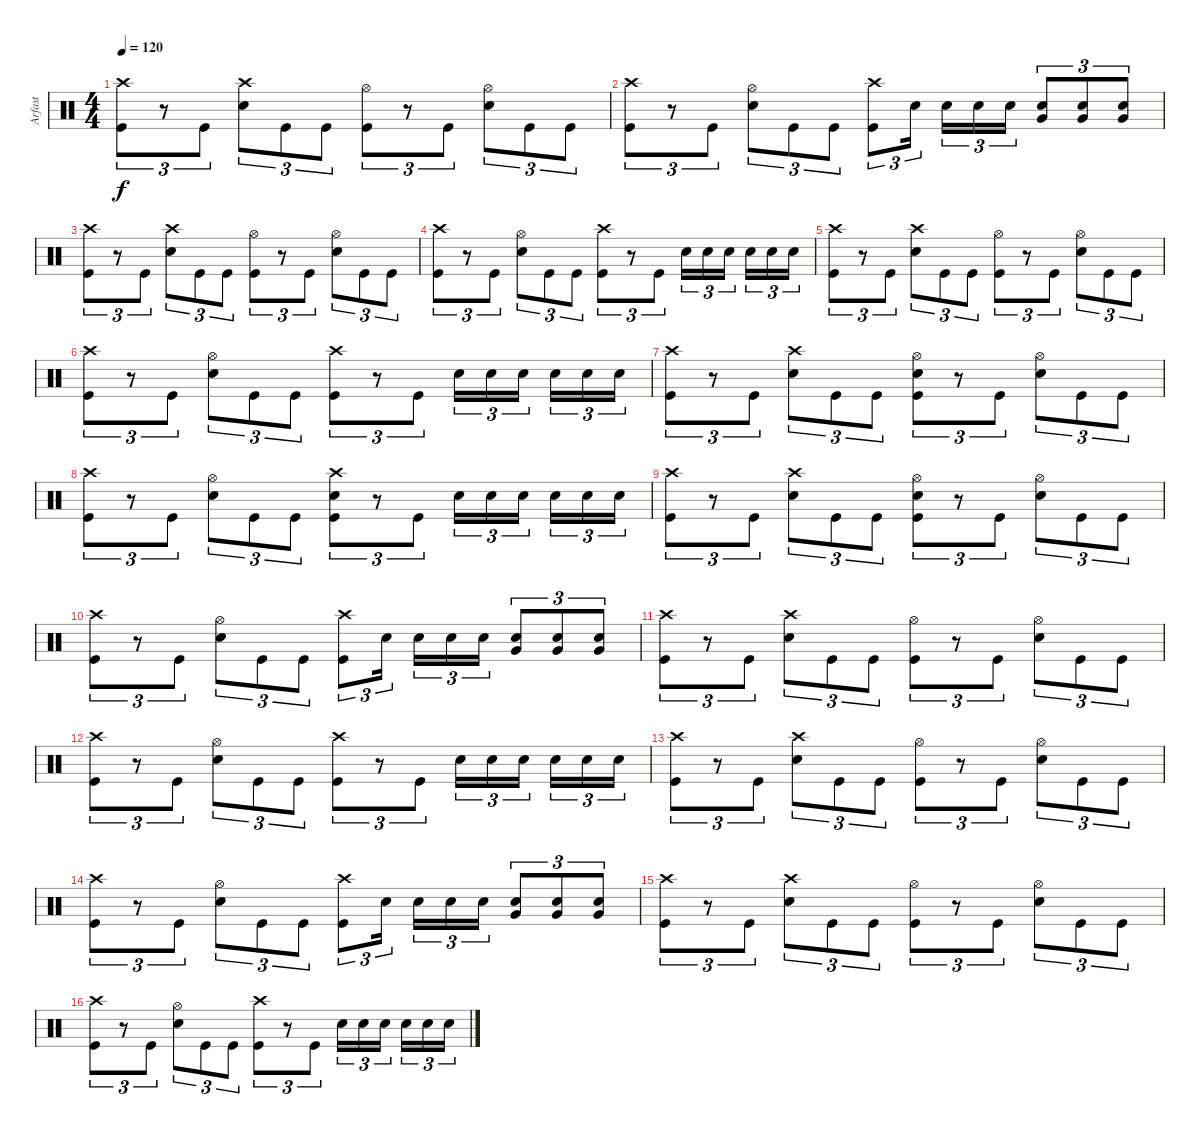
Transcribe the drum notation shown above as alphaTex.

\track ("Arfast" "Arfast") {instrument percussion}
\staff {score}
\articulation defaults
\ts (4 4)
\tempo 120
\clef neutral
\ks c
("Crash high (hit)" "Kick (hit)").8{tu (3 2) dy f} r.8{tu (3 2)} "Kick (hit)".8{tu (3 2)} ("Crash high (hit)" "Snare (hit) 2").8{tu (3 2)} "Kick (hit)".8{tu (3 2)} "Kick (hit)".8{tu (3 2)} ("Hi-Hat (open)" "Kick (hit)").8{tu (3 2)} r.8{tu (3 2)} "Kick (hit)".8{tu (3 2)} ("Hi-Hat (open)" "Snare (hit) 2").8{tu (3 2)} "Kick (hit)".8{tu (3 2)} "Kick (hit)".8{tu (3 2)} |
("Crash high (hit)" "Kick (hit)").8{tu (3 2)} r.8{tu (3 2)} "Kick (hit)".8{tu (3 2)} ("Hi-Hat (open)" "Snare (hit) 2").8{tu (3 2)} "Kick (hit)".8{tu (3 2)} "Kick (hit)".8{tu (3 2)} ("Crash high (hit)" "Kick (hit)").8{tu (3 2)} "Snare (hit) 2".16{tu (3 2) beam splitsecondary} "Snare (hit) 2".16{tu (3 2)} "Snare (hit) 2".16{tu (3 2)} "Snare (hit) 2".16{tu (3 2)} ("Snare (hit) 2" "Very Low Tom (hit)").8{tu (3 2)} ("Snare (hit) 2" "Very Low Tom (hit)").8{tu (3 2)} ("Snare (hit) 2" "Very Low Tom (hit)").8{tu (3 2)} |
("Crash high (hit)" "Kick (hit)").8{tu (3 2)} r.8{tu (3 2)} "Kick (hit)".8{tu (3 2)} ("Crash high (hit)" "Snare (hit) 2").8{tu (3 2)} "Kick (hit)".8{tu (3 2)} "Kick (hit)".8{tu (3 2)} ("Hi-Hat (open)" "Kick (hit)").8{tu (3 2)} r.8{tu (3 2)} "Kick (hit)".8{tu (3 2)} ("Hi-Hat (open)" "Snare (hit) 2").8{tu (3 2)} "Kick (hit)".8{tu (3 2)} "Kick (hit)".8{tu (3 2)} |
("Crash high (hit)" "Kick (hit)").8{tu (3 2)} r.8{tu (3 2)} "Kick (hit)".8{tu (3 2)} ("Hi-Hat (open)" "Snare (hit) 2").8{tu (3 2)} "Kick (hit)".8{tu (3 2)} "Kick (hit)".8{tu (3 2)} ("Crash high (hit)" "Kick (hit)").8{tu (3 2)} r.8{tu (3 2)} "Kick (hit)".8{tu (3 2)} "Snare (hit) 2".16{tu (3 2)} "Snare (hit) 2".16{tu (3 2)} "Snare (hit) 2".16{tu (3 2) beam splitsecondary} "Snare (hit) 2".16{tu (3 2)} "Snare (hit) 2".16{tu (3 2)} "Snare (hit) 2".16{tu (3 2)} |
("Crash high (hit)" "Kick (hit)").8{tu (3 2)} r.8{tu (3 2)} "Kick (hit)".8{tu (3 2)} ("Crash high (hit)" "Snare (hit) 2").8{tu (3 2)} "Kick (hit)".8{tu (3 2)} "Kick (hit)".8{tu (3 2)} ("Hi-Hat (open)" "Kick (hit)").8{tu (3 2)} r.8{tu (3 2)} "Kick (hit)".8{tu (3 2)} ("Hi-Hat (open)" "Snare (hit) 2").8{tu (3 2)} "Kick (hit)".8{tu (3 2)} "Kick (hit)".8{tu (3 2)} |
("Crash high (hit)" "Kick (hit)").8{tu (3 2)} r.8{tu (3 2)} "Kick (hit)".8{tu (3 2)} ("Hi-Hat (open)" "Snare (hit) 2").8{tu (3 2)} "Kick (hit)".8{tu (3 2)} "Kick (hit)".8{tu (3 2)} ("Crash high (hit)" "Kick (hit)").8{tu (3 2)} r.8{tu (3 2)} "Kick (hit)".8{tu (3 2)} "Snare (hit) 2".16{tu (3 2)} "Snare (hit) 2".16{tu (3 2)} "Snare (hit) 2".16{tu (3 2) beam splitsecondary} "Snare (hit) 2".16{tu (3 2)} "Snare (hit) 2".16{tu (3 2)} "Snare (hit) 2".16{tu (3 2)} |
("Crash high (hit)" "Kick (hit)").8{tu (3 2)} r.8{tu (3 2)} "Kick (hit)".8{tu (3 2)} ("Crash high (hit)" "Snare (hit) 2").8{tu (3 2)} "Kick (hit)".8{tu (3 2)} "Kick (hit)".8{tu (3 2)} ("Hi-Hat (open)" "Snare (hit) 2" "Kick (hit)").8{tu (3 2)} r.8{tu (3 2)} "Kick (hit)".8{tu (3 2)} ("Hi-Hat (open)" "Snare (hit) 2").8{tu (3 2)} "Kick (hit)".8{tu (3 2)} "Kick (hit)".8{tu (3 2)} |
("Crash high (hit)" "Kick (hit)").8{tu (3 2)} r.8{tu (3 2)} "Kick (hit)".8{tu (3 2)} ("Hi-Hat (open)" "Snare (hit) 2").8{tu (3 2)} "Kick (hit)".8{tu (3 2)} "Kick (hit)".8{tu (3 2)} ("Crash high (hit)" "Snare (hit) 2" "Kick (hit)").8{tu (3 2)} r.8{tu (3 2)} "Kick (hit)".8{tu (3 2)} "Snare (hit) 2".16{tu (3 2)} "Snare (hit) 2".16{tu (3 2)} "Snare (hit) 2".16{tu (3 2) beam splitsecondary} "Snare (hit) 2".16{tu (3 2)} "Snare (hit) 2".16{tu (3 2)} "Snare (hit) 2".16{tu (3 2)} |
("Crash high (hit)" "Kick (hit)").8{tu (3 2)} r.8{tu (3 2)} "Kick (hit)".8{tu (3 2)} ("Crash high (hit)" "Snare (hit) 2").8{tu (3 2)} "Kick (hit)".8{tu (3 2)} "Kick (hit)".8{tu (3 2)} ("Hi-Hat (open)" "Snare (hit) 2" "Kick (hit)").8{tu (3 2)} r.8{tu (3 2)} "Kick (hit)".8{tu (3 2)} ("Hi-Hat (open)" "Snare (hit) 2").8{tu (3 2)} "Kick (hit)".8{tu (3 2)} "Kick (hit)".8{tu (3 2)} |
("Crash high (hit)" "Kick (hit)").8{tu (3 2)} r.8{tu (3 2)} "Kick (hit)".8{tu (3 2)} ("Hi-Hat (open)" "Snare (hit) 2").8{tu (3 2)} "Kick (hit)".8{tu (3 2)} "Kick (hit)".8{tu (3 2)} ("Crash high (hit)" "Kick (hit)").8{tu (3 2)} "Snare (hit) 2".16{tu (3 2) beam splitsecondary} "Snare (hit) 2".16{tu (3 2)} "Snare (hit) 2".16{tu (3 2)} "Snare (hit) 2".16{tu (3 2)} ("Snare (hit) 2" "Very Low Tom (hit)").8{tu (3 2)} ("Snare (hit) 2" "Very Low Tom (hit)").8{tu (3 2)} ("Snare (hit) 2" "Very Low Tom (hit)").8{tu (3 2)} |
("Crash high (hit)" "Kick (hit)").8{tu (3 2)} r.8{tu (3 2)} "Kick (hit)".8{tu (3 2)} ("Crash high (hit)" "Snare (hit) 2").8{tu (3 2)} "Kick (hit)".8{tu (3 2)} "Kick (hit)".8{tu (3 2)} ("Hi-Hat (open)" "Kick (hit)").8{tu (3 2)} r.8{tu (3 2)} "Kick (hit)".8{tu (3 2)} ("Hi-Hat (open)" "Snare (hit) 2").8{tu (3 2)} "Kick (hit)".8{tu (3 2)} "Kick (hit)".8{tu (3 2)} |
("Crash high (hit)" "Kick (hit)").8{tu (3 2)} r.8{tu (3 2)} "Kick (hit)".8{tu (3 2)} ("Hi-Hat (open)" "Snare (hit) 2").8{tu (3 2)} "Kick (hit)".8{tu (3 2)} "Kick (hit)".8{tu (3 2)} ("Crash high (hit)" "Kick (hit)").8{tu (3 2)} r.8{tu (3 2)} "Kick (hit)".8{tu (3 2)} "Snare (hit) 2".16{tu (3 2)} "Snare (hit) 2".16{tu (3 2)} "Snare (hit) 2".16{tu (3 2) beam splitsecondary} "Snare (hit) 2".16{tu (3 2)} "Snare (hit) 2".16{tu (3 2)} "Snare (hit) 2".16{tu (3 2)} |
("Crash high (hit)" "Kick (hit)").8{tu (3 2)} r.8{tu (3 2)} "Kick (hit)".8{tu (3 2)} ("Crash high (hit)" "Snare (hit) 2").8{tu (3 2)} "Kick (hit)".8{tu (3 2)} "Kick (hit)".8{tu (3 2)} ("Hi-Hat (open)" "Kick (hit)").8{tu (3 2)} r.8{tu (3 2)} "Kick (hit)".8{tu (3 2)} ("Hi-Hat (open)" "Snare (hit) 2").8{tu (3 2)} "Kick (hit)".8{tu (3 2)} "Kick (hit)".8{tu (3 2)} |
("Crash high (hit)" "Kick (hit)").8{tu (3 2)} r.8{tu (3 2)} "Kick (hit)".8{tu (3 2)} ("Hi-Hat (open)" "Snare (hit) 2").8{tu (3 2)} "Kick (hit)".8{tu (3 2)} "Kick (hit)".8{tu (3 2)} ("Crash high (hit)" "Kick (hit)").8{tu (3 2)} "Snare (hit) 2".16{tu (3 2) beam splitsecondary} "Snare (hit) 2".16{tu (3 2)} "Snare (hit) 2".16{tu (3 2)} "Snare (hit) 2".16{tu (3 2)} ("Snare (hit) 2" "Very Low Tom (hit)").8{tu (3 2)} ("Snare (hit) 2" "Very Low Tom (hit)").8{tu (3 2)} ("Snare (hit) 2" "Very Low Tom (hit)").8{tu (3 2)} |
("Crash high (hit)" "Kick (hit)").8{tu (3 2)} r.8{tu (3 2)} "Kick (hit)".8{tu (3 2)} ("Crash high (hit)" "Snare (hit) 2").8{tu (3 2)} "Kick (hit)".8{tu (3 2)} "Kick (hit)".8{tu (3 2)} ("Hi-Hat (open)" "Kick (hit)").8{tu (3 2)} r.8{tu (3 2)} "Kick (hit)".8{tu (3 2)} ("Hi-Hat (open)" "Snare (hit) 2").8{tu (3 2)} "Kick (hit)".8{tu (3 2)} "Kick (hit)".8{tu (3 2)} |
("Crash high (hit)" "Kick (hit)").8{tu (3 2)} r.8{tu (3 2)} "Kick (hit)".8{tu (3 2)} ("Hi-Hat (open)" "Snare (hit) 2").8{tu (3 2)} "Kick (hit)".8{tu (3 2)} "Kick (hit)".8{tu (3 2)} ("Crash high (hit)" "Kick (hit)").8{tu (3 2)} r.8{tu (3 2)} "Kick (hit)".8{tu (3 2)} "Snare (hit) 2".16{tu (3 2)} "Snare (hit) 2".16{tu (3 2)} "Snare (hit) 2".16{tu (3 2) beam splitsecondary} "Snare (hit) 2".16{tu (3 2)} "Snare (hit) 2".16{tu (3 2)} "Snare (hit) 2".16{tu (3 2)}
